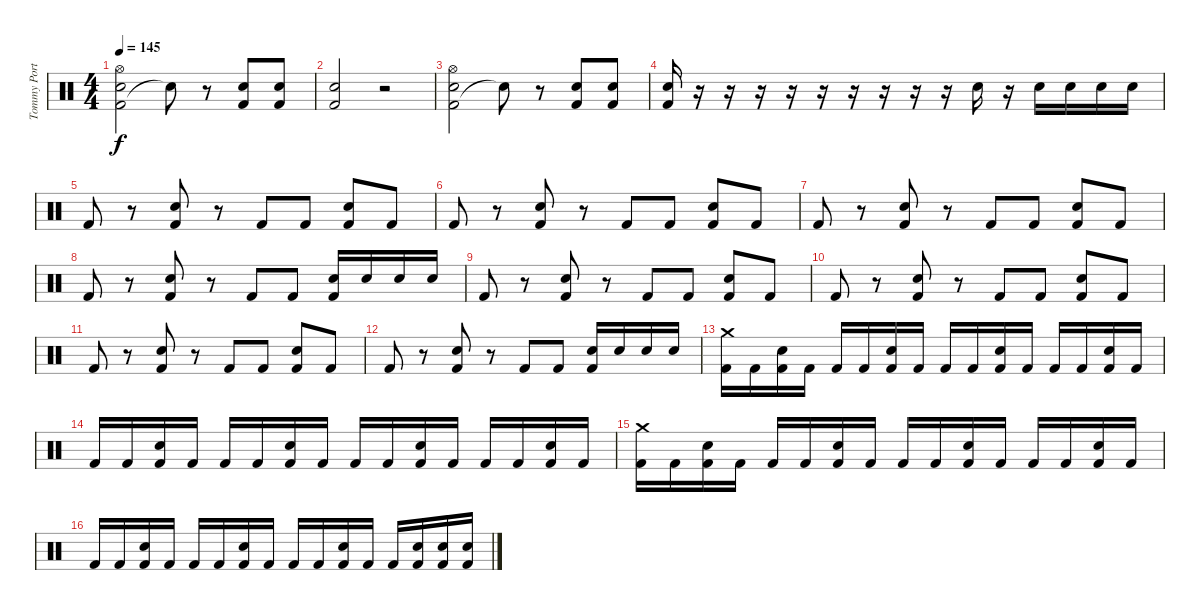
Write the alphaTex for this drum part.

\track ("Tommy Portino" "Tommy Port") {instrument percussion}
\staff {score}
\articulation defaults
\ts (4 4)
\tempo 145
\clef neutral
\ks c
("Kick (hit) 2" "Electric Snare (hit)" "Hi-Hat (open)").2{dy f} "Snare (hit)"{t}.8 r.8 ("Kick (hit) 2" "Electric Snare (hit)").8 ("Kick (hit) 2" "Electric Snare (hit)").8 |
("Kick (hit) 2" "Electric Snare (hit)").2 r.2 |
("Kick (hit) 2" "Electric Snare (hit)" "Hi-Hat (open)").2 "Snare (hit)"{t}.8 r.8 ("Kick (hit) 2" "Electric Snare (hit)").8 ("Kick (hit) 2" "Electric Snare (hit)").8 |
("Kick (hit) 2" "Electric Snare (hit)").16 r.16 r.16 r.16 r.16 r.16 r.16 r.16 r.16 r.16 "Electric Snare (hit)".16 r.16 "Electric Snare (hit)".16 "Electric Snare (hit)".16 "Electric Snare (hit)".16 "Electric Snare (hit)".16 |
"Kick (hit) 2".8 r.8 ("Kick (hit) 2" "Electric Snare (hit)").8 r.8 "Kick (hit) 2".8 "Kick (hit) 2".8 ("Kick (hit) 2" "Electric Snare (hit)").8 "Kick (hit) 2".8 |
"Kick (hit) 2".8 r.8 ("Kick (hit) 2" "Electric Snare (hit)").8 r.8 "Kick (hit) 2".8 "Kick (hit) 2".8 ("Kick (hit) 2" "Electric Snare (hit)").8 "Kick (hit) 2".8 |
"Kick (hit) 2".8 r.8 ("Kick (hit) 2" "Electric Snare (hit)").8 r.8 "Kick (hit) 2".8 "Kick (hit) 2".8 ("Kick (hit) 2" "Electric Snare (hit)").8 "Kick (hit) 2".8 |
"Kick (hit) 2".8 r.8 ("Kick (hit) 2" "Electric Snare (hit)").8 r.8 "Kick (hit) 2".8 "Kick (hit) 2".8 ("Kick (hit) 2" "Electric Snare (hit)").16 "Electric Snare (hit)".16 "Electric Snare (hit)".16 "Electric Snare (hit)".16 |
"Kick (hit) 2".8 r.8 ("Kick (hit) 2" "Electric Snare (hit)").8 r.8 "Kick (hit) 2".8 "Kick (hit) 2".8 ("Kick (hit) 2" "Electric Snare (hit)").8 "Kick (hit) 2".8 |
"Kick (hit) 2".8 r.8 ("Kick (hit) 2" "Electric Snare (hit)").8 r.8 "Kick (hit) 2".8 "Kick (hit) 2".8 ("Kick (hit) 2" "Electric Snare (hit)").8 "Kick (hit) 2".8 |
"Kick (hit) 2".8 r.8 ("Kick (hit) 2" "Electric Snare (hit)").8 r.8 "Kick (hit) 2".8 "Kick (hit) 2".8 ("Kick (hit) 2" "Electric Snare (hit)").8 "Kick (hit) 2".8 |
"Kick (hit) 2".8 r.8 ("Kick (hit) 2" "Electric Snare (hit)").8 r.8 "Kick (hit) 2".8 "Kick (hit) 2".8 ("Kick (hit) 2" "Electric Snare (hit)").16 "Electric Snare (hit)".16 "Electric Snare (hit)".16 "Electric Snare (hit)".16 |
("Kick (hit) 2" "Crash medium (hit)").16 "Kick (hit) 2".16 ("Kick (hit) 2" "Electric Snare (hit)").16 "Kick (hit) 2".16 "Kick (hit) 2".16 "Kick (hit) 2".16 ("Kick (hit) 2" "Electric Snare (hit)").16 "Kick (hit) 2".16 "Kick (hit) 2".16 "Kick (hit) 2".16 ("Kick (hit) 2" "Electric Snare (hit)").16 "Kick (hit) 2".16 "Kick (hit) 2".16 "Kick (hit) 2".16 ("Kick (hit) 2" "Electric Snare (hit)").16 "Kick (hit) 2".16 |
"Kick (hit) 2".16 "Kick (hit) 2".16 ("Kick (hit) 2" "Electric Snare (hit)").16 "Kick (hit) 2".16 "Kick (hit) 2".16 "Kick (hit) 2".16 ("Kick (hit) 2" "Electric Snare (hit)").16 "Kick (hit) 2".16 "Kick (hit) 2".16 "Kick (hit) 2".16 ("Kick (hit) 2" "Electric Snare (hit)").16 "Kick (hit) 2".16 "Kick (hit) 2".16 "Kick (hit) 2".16 ("Kick (hit) 2" "Electric Snare (hit)").16 "Kick (hit) 2".16 |
("Kick (hit) 2" "Crash medium (hit)").16 "Kick (hit) 2".16 ("Kick (hit) 2" "Electric Snare (hit)").16 "Kick (hit) 2".16 "Kick (hit) 2".16 "Kick (hit) 2".16 ("Kick (hit) 2" "Electric Snare (hit)").16 "Kick (hit) 2".16 "Kick (hit) 2".16 "Kick (hit) 2".16 ("Kick (hit) 2" "Electric Snare (hit)").16 "Kick (hit) 2".16 "Kick (hit) 2".16 "Kick (hit) 2".16 ("Kick (hit) 2" "Electric Snare (hit)").16 "Kick (hit) 2".16 |
"Kick (hit) 2".16 "Kick (hit) 2".16 ("Kick (hit) 2" "Electric Snare (hit)").16 "Kick (hit) 2".16 "Kick (hit) 2".16 "Kick (hit) 2".16 ("Kick (hit) 2" "Electric Snare (hit)").16 "Kick (hit) 2".16 "Kick (hit) 2".16 "Kick (hit) 2".16 ("Kick (hit) 2" "Electric Snare (hit)").16 "Kick (hit) 2".16 "Kick (hit) 2".16 ("Kick (hit) 2" "Electric Snare (hit)").16 ("Kick (hit) 2" "Electric Snare (hit)").16 ("Kick (hit) 2" "Electric Snare (hit)").16
